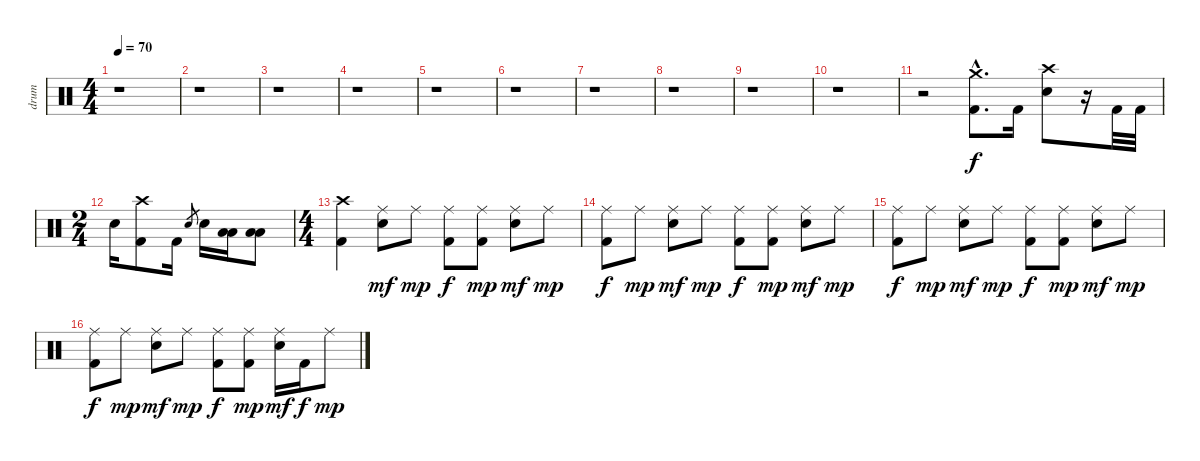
\track ("drum" "drum") {instrument percussion}
\staff {score}
\articulation defaults
\ts (4 4)
\tempo 70
\clef neutral
\ks c
r.1{dy f} |
r.1 |
r.1 |
r.1 |
r.1 |
r.1 |
r.1 |
r.1 |
r.1 |
r.1 |
r.2 ("Crash medium (hit)"{hac} "Kick (hit) 2"{hac}).8{d} "Kick (hit) 2".16 ("Crash high (hit)" "Electric Snare (hit)").8 r.16 "Kick (hit) 2".32 "Kick (hit) 2".32 |
\ts (2 4)
"Electric Snare (hit)".16 ("Crash high (hit)" "Kick (hit) 2").8 "Kick (hit) 2".16 "Electric Snare (hit)".8{gr} "Electric Snare (hit)".16 ("Low Tom (hit)" "Low Floor Tom (hit)").16 ("Low Tom (hit)" "Low Floor Tom (hit)").8 |
\ts (4 4)
("Crash high (hit)" "Kick (hit) 2").4 ("Ride (middle)" "Electric Snare (hit)").8{dy mf} "Ride (middle)".8{dy mp} ("Ride (middle)" "Kick (hit) 2").8{dy f} ("Ride (middle)" "Kick (hit) 2").8{dy mp} ("Ride (middle)" "Electric Snare (hit)").8{dy mf} "Ride (middle)".8{dy mp} |
("Ride (middle)" "Kick (hit) 2").8{dy f} "Ride (middle)".8{dy mp} ("Ride (middle)" "Electric Snare (hit)").8{dy mf} "Ride (middle)".8{dy mp} ("Ride (middle)" "Kick (hit) 2").8{dy f} ("Ride (middle)" "Kick (hit) 2").8{dy mp} ("Ride (middle)" "Electric Snare (hit)").8{dy mf} "Ride (middle)".8{dy mp} |
("Ride (middle)" "Kick (hit) 2").8{dy f} "Ride (middle)".8{dy mp} ("Ride (middle)" "Electric Snare (hit)").8{dy mf} "Ride (middle)".8{dy mp} ("Ride (middle)" "Kick (hit) 2").8{dy f} ("Ride (middle)" "Kick (hit) 2").8{dy mp} ("Ride (middle)" "Electric Snare (hit)").8{dy mf} "Ride (middle)".8{dy mp} |
("Ride (middle)" "Kick (hit) 2").8{dy f} "Ride (middle)".8{dy mp} ("Ride (middle)" "Electric Snare (hit)").8{dy mf} "Ride (middle)".8{dy mp} ("Ride (middle)" "Kick (hit) 2").8{dy f} ("Ride (middle)" "Kick (hit) 2").8{dy mp} ("Ride (middle)" "Electric Snare (hit)").16{dy mf} "Kick (hit) 2".16{dy f} "Ride (middle)".8{dy mp}
